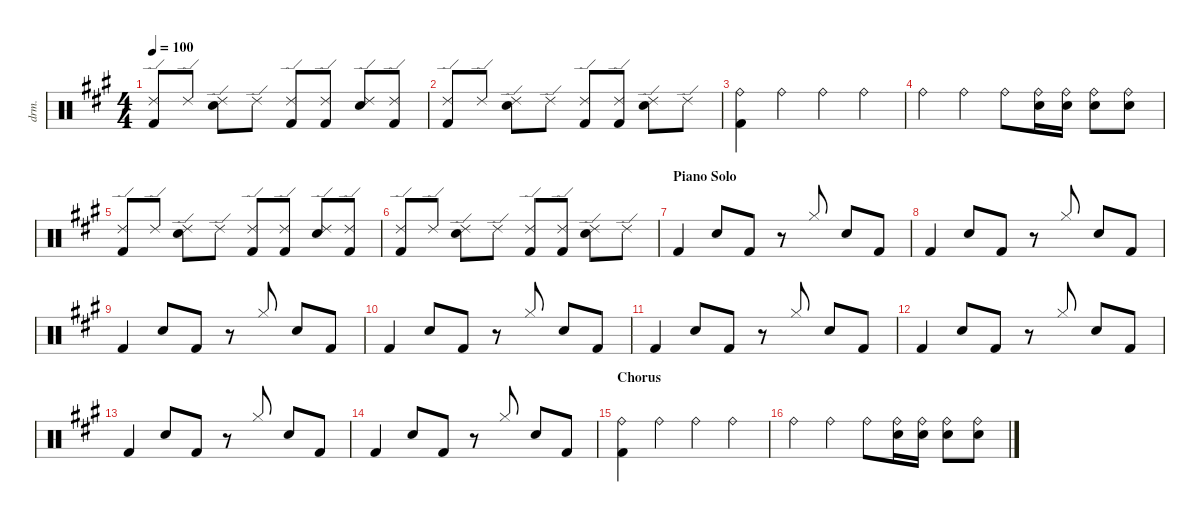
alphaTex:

\defaultSystemsLayout 4
\hideDynamics
\bracketExtendMode nobrackets
\otherSystemsTrackNameOrientation horizontal
\track ("Drums" "drm.") {instrument percussion}
\staff {score}
\articulation defaults
\ts (4 4)
\tempo 100
\clef neutral
\ks a
("Ride (edge) 2"{acc forcenatural} "Kick (hit) 2"{acc forcenatural}).8{dy f beam Up} "Ride (edge) 2"{acc forcenatural}.8{beam Up} ("Ride (edge) 2"{acc forcenatural} "Snare (hit) 2"{acc forcenatural}).8{beam Down} "Ride (edge) 2"{acc forcenatural}.8{beam Down} ("Ride (edge) 2"{acc forcenatural} "Kick (hit) 2"{acc forcenatural}).8{beam Up} ("Ride (edge) 2"{acc forcenatural} "Kick (hit) 2"{acc forcenatural}).8{beam Up} ("Ride (edge) 2"{acc forcenatural} "Snare (hit) 2"{acc forcenatural}).8{beam Up} ("Ride (edge) 2"{acc forcenatural} "Kick (hit) 2"{acc forcenatural}).8{beam Up} |
("Ride (edge) 2"{acc forcenatural} "Kick (hit) 2"{acc forcenatural}).8{beam Up} "Ride (edge) 2"{acc forcenatural}.8{beam Up} ("Ride (edge) 2"{acc forcenatural} "Snare (hit) 2"{acc forcenatural}).8{beam Down} "Ride (edge) 2"{acc forcenatural}.8{beam Down} ("Ride (edge) 2"{acc forcenatural} "Kick (hit) 2"{acc forcenatural}).8{beam Up} ("Ride (edge) 2"{acc forcenatural} "Kick (hit) 2"{acc forcenatural}).8{beam Up} ("Ride (edge) 2"{acc forcenatural} "Snare (hit) 2"{acc forcenatural}).8{beam Down} "Ride (edge) 2"{acc forcenatural}.8{beam Down} |
("Ride (bell)"{acc forcenatural} "Kick (hit) 2"{acc forcenatural}).4{beam Down} "Ride (bell)"{acc forcenatural}.4{beam Down} "Ride (bell)"{acc forcenatural}.4{beam Down} "Ride (bell)"{acc forcenatural}.4{beam Down} |
"Ride (bell)"{acc forcenatural}.4{beam Down} "Ride (bell)"{acc forcenatural}.4{beam Down} "Ride (bell)"{acc forcenatural}.8{beam Down} ("Ride (bell)"{acc forcenatural} "Snare (hit) 2"{acc forcenatural}).16{beam Down} ("Ride (bell)"{acc forcenatural} "Snare (hit) 2"{acc forcenatural}).16{beam Down} ("Ride (bell)"{acc forcenatural} "Snare (hit) 2"{acc forcenatural}).8{beam Down} ("Ride (bell)"{acc forcenatural} "Snare (hit) 2"{acc forcenatural}).8{beam Down} |
("Ride (edge) 2"{acc forcenatural} "Kick (hit) 2"{acc forcenatural}).8{beam Up} "Ride (edge) 2"{acc forcenatural}.8{beam Up} ("Ride (edge) 2"{acc forcenatural} "Snare (hit) 2"{acc forcenatural}).8{beam Down} "Ride (edge) 2"{acc forcenatural}.8{beam Down} ("Ride (edge) 2"{acc forcenatural} "Kick (hit) 2"{acc forcenatural}).8{beam Up} ("Ride (edge) 2"{acc forcenatural} "Kick (hit) 2"{acc forcenatural}).8{beam Up} ("Ride (edge) 2"{acc forcenatural} "Snare (hit) 2"{acc forcenatural}).8{beam Up} ("Ride (edge) 2"{acc forcenatural} "Kick (hit) 2"{acc forcenatural}).8{beam Up} |
("Ride (edge) 2"{acc forcenatural} "Kick (hit) 2"{acc forcenatural}).8{beam Up} "Ride (edge) 2"{acc forcenatural}.8{beam Up} ("Ride (edge) 2"{acc forcenatural} "Snare (hit) 2"{acc forcenatural}).8{beam Down} "Ride (edge) 2"{acc forcenatural}.8{beam Down} ("Ride (edge) 2"{acc forcenatural} "Kick (hit) 2"{acc forcenatural}).8{beam Up} ("Ride (edge) 2"{acc forcenatural} "Kick (hit) 2"{acc forcenatural}).8{beam Up} ("Ride (edge) 2"{acc forcenatural} "Snare (hit) 2"{acc forcenatural}).8{beam Down} "Ride (edge) 2"{acc forcenatural}.8{beam Down} |
\section ("" "Piano Solo")
"Kick (hit) 2"{acc forcenatural}.4{beam Up} "Snare (hit) 2"{acc forcenatural}.8{beam Up} "Kick (hit) 2"{acc forcenatural}.8{beam Up} r.8{beam Up} "Hi-Hat (closed)"{acc forcenatural}.8{beam Down} "Snare (hit) 2"{acc forcenatural}.8{beam Up} "Kick (hit) 2"{acc forcenatural}.8{beam Up} |
"Kick (hit) 2"{acc forcenatural}.4{beam Up} "Snare (hit) 2"{acc forcenatural}.8{beam Up} "Kick (hit) 2"{acc forcenatural}.8{beam Up} r.8{beam Up} "Hi-Hat (closed)"{acc forcenatural}.8{beam Down} "Snare (hit) 2"{acc forcenatural}.8{beam Up} "Kick (hit) 2"{acc forcenatural}.8{beam Up} |
"Kick (hit) 2"{acc forcenatural}.4{beam Up} "Snare (hit) 2"{acc forcenatural}.8{beam Up} "Kick (hit) 2"{acc forcenatural}.8{beam Up} r.8{beam Up} "Hi-Hat (closed)"{acc forcenatural}.8{beam Down} "Snare (hit) 2"{acc forcenatural}.8{beam Up} "Kick (hit) 2"{acc forcenatural}.8{beam Up} |
"Kick (hit) 2"{acc forcenatural}.4{beam Up} "Snare (hit) 2"{acc forcenatural}.8{beam Up} "Kick (hit) 2"{acc forcenatural}.8{beam Up} r.8{beam Up} "Hi-Hat (closed)"{acc forcenatural}.8{beam Down} "Snare (hit) 2"{acc forcenatural}.8{beam Up} "Kick (hit) 2"{acc forcenatural}.8{beam Up} |
"Kick (hit) 2"{acc forcenatural}.4{beam Up} "Snare (hit) 2"{acc forcenatural}.8{beam Up} "Kick (hit) 2"{acc forcenatural}.8{beam Up} r.8{beam Up} "Hi-Hat (closed)"{acc forcenatural}.8{beam Down} "Snare (hit) 2"{acc forcenatural}.8{beam Up} "Kick (hit) 2"{acc forcenatural}.8{beam Up} |
"Kick (hit) 2"{acc forcenatural}.4{beam Up} "Snare (hit) 2"{acc forcenatural}.8{beam Up} "Kick (hit) 2"{acc forcenatural}.8{beam Up} r.8{beam Up} "Hi-Hat (closed)"{acc forcenatural}.8{beam Down} "Snare (hit) 2"{acc forcenatural}.8{beam Up} "Kick (hit) 2"{acc forcenatural}.8{beam Up} |
"Kick (hit) 2"{acc forcenatural}.4{beam Up} "Snare (hit) 2"{acc forcenatural}.8{beam Up} "Kick (hit) 2"{acc forcenatural}.8{beam Up} r.8{beam Up} "Hi-Hat (closed)"{acc forcenatural}.8{beam Down} "Snare (hit) 2"{acc forcenatural}.8{beam Up} "Kick (hit) 2"{acc forcenatural}.8{beam Up} |
"Kick (hit) 2"{acc forcenatural}.4{beam Up} "Snare (hit) 2"{acc forcenatural}.8{beam Up} "Kick (hit) 2"{acc forcenatural}.8{beam Up} r.8{beam Up} "Hi-Hat (closed)"{acc forcenatural}.8{beam Down} "Snare (hit) 2"{acc forcenatural}.8{beam Up} "Kick (hit) 2"{acc forcenatural}.8{beam Up} |
\section ("" "Chorus")
("Ride (bell)"{acc forcenatural} "Kick (hit) 2"{acc forcenatural}).4{beam Down} "Ride (bell)"{acc forcenatural}.4{beam Down} "Ride (bell)"{acc forcenatural}.4{beam Down} "Ride (bell)"{acc forcenatural}.4{beam Down} |
"Ride (bell)"{acc forcenatural}.4{beam Down} "Ride (bell)"{acc forcenatural}.4{beam Down} "Ride (bell)"{acc forcenatural}.8{beam Down} ("Ride (bell)"{acc forcenatural} "Snare (hit) 2"{acc forcenatural}).16{beam Down} ("Ride (bell)"{acc forcenatural} "Snare (hit) 2"{acc forcenatural}).16{beam Down} ("Ride (bell)"{acc forcenatural} "Snare (hit) 2"{acc forcenatural}).8{beam Down} ("Ride (bell)"{acc forcenatural} "Snare (hit) 2"{acc forcenatural}).8{beam Down}
